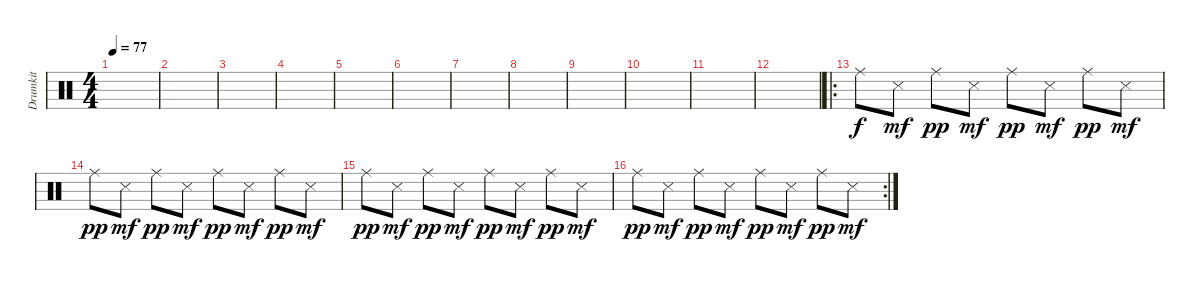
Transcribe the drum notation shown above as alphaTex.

\track ("Drumkit" "Drumkit") {instrument percussion}
\staff {score}
\articulation defaults
\ts (4 4)
\tempo 77
\clef neutral
\ks c
|
|
|
|
\section ("" "")
|
|
|
|
|
|
|
|
\ro
\section ("" "")
"Ride (middle)".8 "Snare (side stick) 3".8{dy mf} "Ride (middle)".8{dy pp} "Snare (side stick) 3".8{dy mf} "Ride (middle)".8{dy pp} "Snare (side stick) 3".8{dy mf} "Ride (middle)".8{dy pp} "Snare (side stick) 3".8{dy mf} |
"Ride (middle)".8{dy pp} "Snare (side stick) 3".8{dy mf} "Ride (middle)".8{dy pp} "Snare (side stick) 3".8{dy mf} "Ride (middle)".8{dy pp} "Snare (side stick) 3".8{dy mf} "Ride (middle)".8{dy pp} "Snare (side stick) 3".8{dy mf} |
"Ride (middle)".8{dy pp} "Snare (side stick) 3".8{dy mf} "Ride (middle)".8{dy pp} "Snare (side stick) 3".8{dy mf} "Ride (middle)".8{dy pp} "Snare (side stick) 3".8{dy mf} "Ride (middle)".8{dy pp} "Snare (side stick) 3".8{dy mf} |
\rc 2 "Ride (middle)".8{dy pp} "Snare (side stick) 3".8{dy mf} "Ride (middle)".8{dy pp} "Snare (side stick) 3".8{dy mf} "Ride (middle)".8{dy pp} "Snare (side stick) 3".8{dy mf} "Ride (middle)".8{dy pp} "Snare (side stick) 3".8{dy mf}
